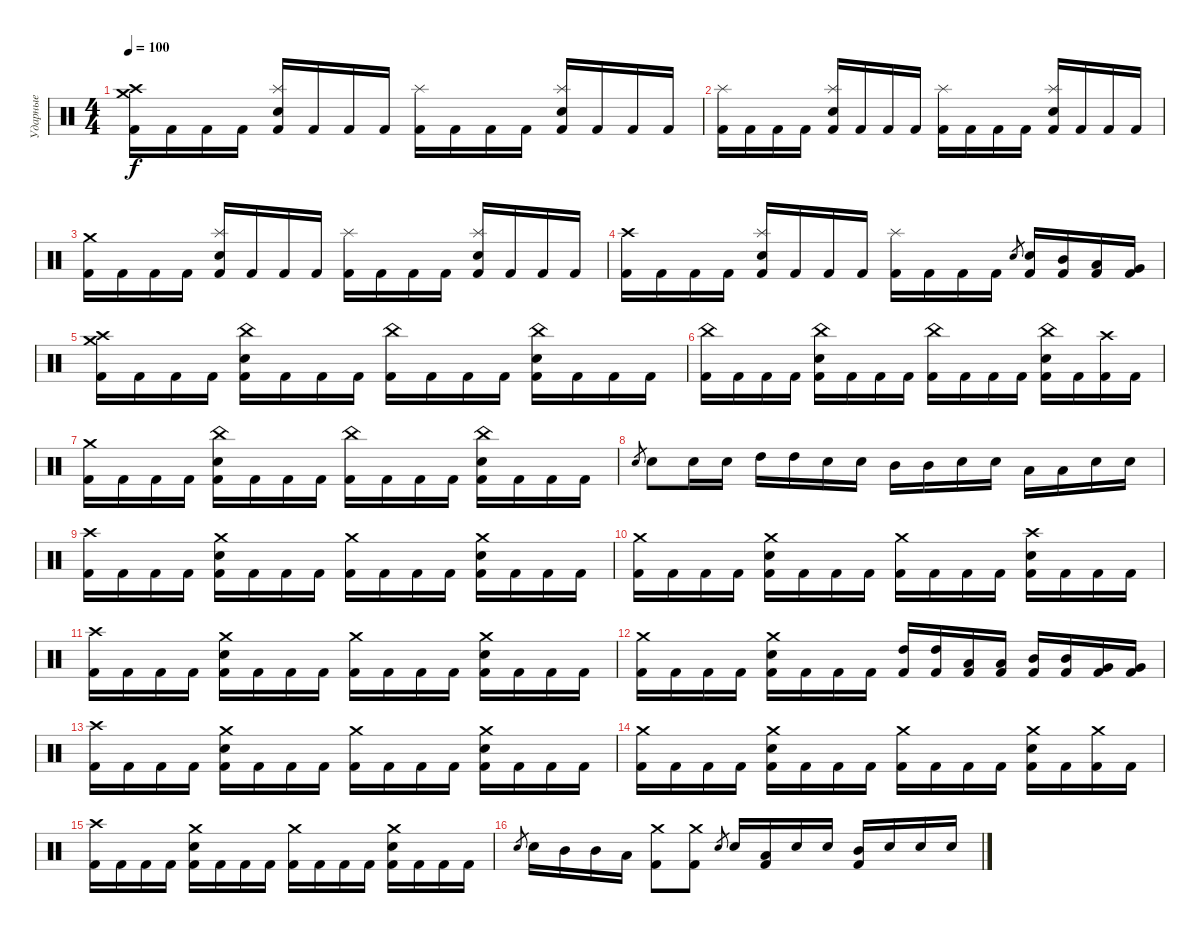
\track ("Ударные" "Ударные") {instrument percussion}
\staff {score}
\articulation defaults
\ts (4 4)
\tempo 100
\clef neutral
\ks c
("Crash medium (hit)" "Crash high (hit)" "Kick (hit) 2").16{dy f} "Kick (hit) 2".16 "Kick (hit) 2".16 "Kick (hit) 2".16 ("Splash (hit)" "Electric Snare (hit)" "Kick (hit) 2").16 "Kick (hit) 2".16 "Kick (hit) 2".16 "Kick (hit) 2".16 ("Splash (hit)" "Kick (hit) 2").16 "Kick (hit) 2".16 "Kick (hit) 2".16 "Kick (hit) 2".16 ("Splash (hit)" "Electric Snare (hit)" "Kick (hit) 2").16 "Kick (hit) 2".16 "Kick (hit) 2".16 "Kick (hit) 2".16 |
("Splash (hit)" "Kick (hit) 2").16 "Kick (hit) 2".16 "Kick (hit) 2".16 "Kick (hit) 2".16 ("Splash (hit)" "Electric Snare (hit)" "Kick (hit) 2").16 "Kick (hit) 2".16 "Kick (hit) 2".16 "Kick (hit) 2".16 ("Splash (hit)" "Kick (hit) 2").16 "Kick (hit) 2".16 "Kick (hit) 2".16 "Kick (hit) 2".16 ("Splash (hit)" "Electric Snare (hit)" "Kick (hit) 2").16 "Kick (hit) 2".16 "Kick (hit) 2".16 "Kick (hit) 2".16 |
("Crash medium (hit)" "Kick (hit) 2").16 "Kick (hit) 2".16 "Kick (hit) 2".16 "Kick (hit) 2".16 ("Splash (hit)" "Electric Snare (hit)" "Kick (hit) 2").16 "Kick (hit) 2".16 "Kick (hit) 2".16 "Kick (hit) 2".16 ("Splash (hit)" "Kick (hit) 2").16 "Kick (hit) 2".16 "Kick (hit) 2".16 "Kick (hit) 2".16 ("Splash (hit)" "Electric Snare (hit)" "Kick (hit) 2").16 "Kick (hit) 2".16 "Kick (hit) 2".16 "Kick (hit) 2".16 |
("Crash high (hit)" "Kick (hit) 2").16 "Kick (hit) 2".16 "Kick (hit) 2".16 "Kick (hit) 2".16 ("Splash (hit)" "Electric Snare (hit)" "Kick (hit) 2").16 "Kick (hit) 2".16 "Kick (hit) 2".16 "Kick (hit) 2".16 ("Splash (hit)" "Kick (hit) 2").16 "Kick (hit) 2".16 "Kick (hit) 2".16 "Kick (hit) 2".16 "Electric Snare (hit)".8{gr} ("Electric Snare (hit)" "Kick (hit) 2").16 ("Mid Tom (hit)" "Kick (hit) 2").16 ("Low Tom (hit)" "Kick (hit) 2").16 ("Very Low Tom (hit)" "Kick (hit) 2").16 |
("Crash medium (hit)" "Crash high (hit)" "Kick (hit) 2").16 "Kick (hit) 2".16 "Kick (hit) 2".16 "Kick (hit) 2".16 ("China (hit)" "Electric Snare (hit)" "Kick (hit) 2").16 "Kick (hit) 2".16 "Kick (hit) 2".16 "Kick (hit) 2".16 ("China (hit)" "Kick (hit) 2").16 "Kick (hit) 2".16 "Kick (hit) 2".16 "Kick (hit) 2".16 ("China (hit)" "Electric Snare (hit)" "Kick (hit) 2").16 "Kick (hit) 2".16 "Kick (hit) 2".16 "Kick (hit) 2".16 |
("China (hit)" "Kick (hit) 2").16 "Kick (hit) 2".16 "Kick (hit) 2".16 "Kick (hit) 2".16 ("China (hit)" "Electric Snare (hit)" "Kick (hit) 2").16 "Kick (hit) 2".16 "Kick (hit) 2".16 "Kick (hit) 2".16 ("China (hit)" "Kick (hit) 2").16 "Kick (hit) 2".16 "Kick (hit) 2".16 "Kick (hit) 2".16 ("China (hit)" "Electric Snare (hit)" "Kick (hit) 2").16 "Kick (hit) 2".16 ("Crash high (hit)" "Kick (hit) 2").16 "Kick (hit) 2".16 |
("Crash medium (hit)" "Kick (hit) 2").16 "Kick (hit) 2".16 "Kick (hit) 2".16 "Kick (hit) 2".16 ("China (hit)" "Electric Snare (hit)" "Kick (hit) 2").16 "Kick (hit) 2".16 "Kick (hit) 2".16 "Kick (hit) 2".16 ("China (hit)" "Kick (hit) 2").16 "Kick (hit) 2".16 "Kick (hit) 2".16 "Kick (hit) 2".16 ("China (hit)" "Electric Snare (hit)" "Kick (hit) 2").16 "Kick (hit) 2".16 "Kick (hit) 2".16 "Kick (hit) 2".16 |
"Electric Snare (hit)".8{gr} "Electric Snare (hit)".8 "Electric Snare (hit)".16 "Electric Snare (hit)".16 "High Tom (hit)".16 "High Tom (hit)".16 "Electric Snare (hit)".16 "Electric Snare (hit)".16 "Mid Tom (hit)".16 "Mid Tom (hit)".16 "Electric Snare (hit)".16 "Electric Snare (hit)".16 "Low Tom (hit)".16 "Low Tom (hit)".16 "Electric Snare (hit)".16 "Electric Snare (hit)".16 |
("Crash high (hit)" "Kick (hit) 2").16 "Kick (hit) 2".16 "Kick (hit) 2".16 "Kick (hit) 2".16 ("Crash medium (hit)" "Electric Snare (hit)" "Kick (hit) 2").16 "Kick (hit) 2".16 "Kick (hit) 2".16 "Kick (hit) 2".16 ("Crash medium (hit)" "Kick (hit) 2").16 "Kick (hit) 2".16 "Kick (hit) 2".16 "Kick (hit) 2".16 ("Crash medium (hit)" "Electric Snare (hit)" "Kick (hit) 2").16 "Kick (hit) 2".16 "Kick (hit) 2".16 "Kick (hit) 2".16 |
("Crash medium (hit)" "Kick (hit) 2").16 "Kick (hit) 2".16 "Kick (hit) 2".16 "Kick (hit) 2".16 ("Crash medium (hit)" "Electric Snare (hit)" "Kick (hit) 2").16 "Kick (hit) 2".16 "Kick (hit) 2".16 "Kick (hit) 2".16 ("Crash medium (hit)" "Kick (hit) 2").16 "Kick (hit) 2".16 "Kick (hit) 2".16 "Kick (hit) 2".16 ("Crash high (hit)" "Electric Snare (hit)" "Kick (hit) 2").16 "Kick (hit) 2".16 "Kick (hit) 2".16 "Kick (hit) 2".16 |
("Crash high (hit)" "Kick (hit) 2").16 "Kick (hit) 2".16 "Kick (hit) 2".16 "Kick (hit) 2".16 ("Crash medium (hit)" "Electric Snare (hit)" "Kick (hit) 2").16 "Kick (hit) 2".16 "Kick (hit) 2".16 "Kick (hit) 2".16 ("Crash medium (hit)" "Kick (hit) 2").16 "Kick (hit) 2".16 "Kick (hit) 2".16 "Kick (hit) 2".16 ("Crash medium (hit)" "Electric Snare (hit)" "Kick (hit) 2").16 "Kick (hit) 2".16 "Kick (hit) 2".16 "Kick (hit) 2".16 |
("Crash medium (hit)" "Kick (hit) 2").16 "Kick (hit) 2".16 "Kick (hit) 2".16 "Kick (hit) 2".16 ("Crash medium (hit)" "Electric Snare (hit)" "Kick (hit) 2").16 "Kick (hit) 2".16 "Kick (hit) 2".16 "Kick (hit) 2".16 ("High Tom (hit)" "Kick (hit) 2").16 ("High Tom (hit)" "Kick (hit) 2").16 ("Low Tom (hit)" "Kick (hit) 2").16 ("Low Tom (hit)" "Kick (hit) 2").16 ("Mid Tom (hit)" "Kick (hit) 2").16 ("Mid Tom (hit)" "Kick (hit) 2").16 ("Very Low Tom (hit)" "Kick (hit) 2").16 ("Very Low Tom (hit)" "Kick (hit) 2").16 |
("Crash high (hit)" "Kick (hit) 2").16 "Kick (hit) 2".16 "Kick (hit) 2".16 "Kick (hit) 2".16 ("Crash medium (hit)" "Electric Snare (hit)" "Kick (hit) 2").16 "Kick (hit) 2".16 "Kick (hit) 2".16 "Kick (hit) 2".16 ("Crash medium (hit)" "Kick (hit) 2").16 "Kick (hit) 2".16 "Kick (hit) 2".16 "Kick (hit) 2".16 ("Crash medium (hit)" "Electric Snare (hit)" "Kick (hit) 2").16 "Kick (hit) 2".16 "Kick (hit) 2".16 "Kick (hit) 2".16 |
("Crash medium (hit)" "Kick (hit) 2").16 "Kick (hit) 2".16 "Kick (hit) 2".16 "Kick (hit) 2".16 ("Crash medium (hit)" "Electric Snare (hit)" "Kick (hit) 2").16 "Kick (hit) 2".16 "Kick (hit) 2".16 "Kick (hit) 2".16 ("Crash medium (hit)" "Kick (hit) 2").16 "Kick (hit) 2".16 "Kick (hit) 2".16 "Kick (hit) 2".16 ("Crash medium (hit)" "Electric Snare (hit)" "Kick (hit) 2").16 "Kick (hit) 2".16 ("Crash medium (hit)" "Kick (hit) 2").16 "Kick (hit) 2".16 |
("Crash high (hit)" "Kick (hit) 2").16 "Kick (hit) 2".16 "Kick (hit) 2".16 "Kick (hit) 2".16 ("Crash medium (hit)" "Electric Snare (hit)" "Kick (hit) 2").16 "Kick (hit) 2".16 "Kick (hit) 2".16 "Kick (hit) 2".16 ("Crash medium (hit)" "Kick (hit) 2").16 "Kick (hit) 2".16 "Kick (hit) 2".16 "Kick (hit) 2".16 ("Crash medium (hit)" "Electric Snare (hit)" "Kick (hit) 2").16 "Kick (hit) 2".16 "Kick (hit) 2".16 "Kick (hit) 2".16 |
"Electric Snare (hit)".8{gr} "Electric Snare (hit)".16 "Mid Tom (hit)".16 "Mid Tom (hit)".16 "Low Tom (hit)".16 ("Crash medium (hit)" "Kick (hit) 2").8 ("Crash medium (hit)" "Kick (hit) 2").8 "Electric Snare (hit)".8{gr} "Electric Snare (hit)".16 ("Low Tom (hit)" "Kick (hit) 2").16 "Electric Snare (hit)".16 "Electric Snare (hit)".16 ("Mid Tom (hit)" "Kick (hit) 2").16 "Electric Snare (hit)".16 "Electric Snare (hit)".16 "Electric Snare (hit)".16
